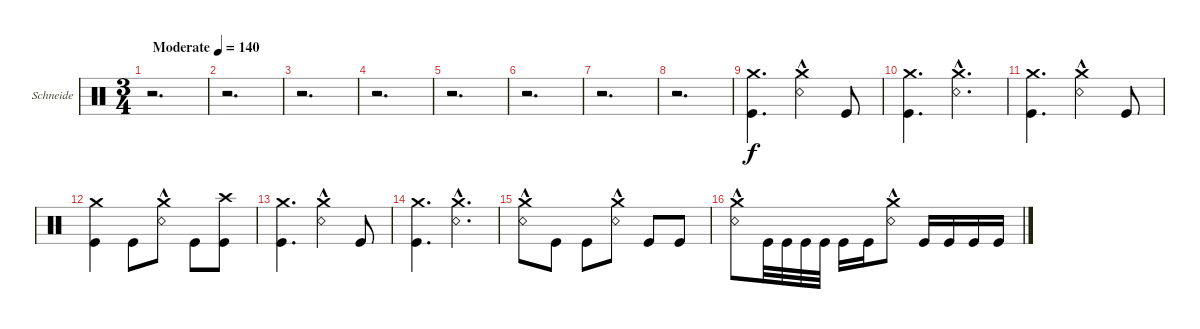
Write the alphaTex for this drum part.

\bracketExtendMode groupsimilarinstruments
\firstSystemTrackNameOrientation horizontal
\otherSystemsTrackNameOrientation horizontal
\track ("Christoph \"Doom\" Schneider" "Schneide") {instrument percussion}
\staff {score}
\articulation defaults
\ts (3 4)
\tempo (140 "Moderate")
\clef neutral
\ks c
r.2{d dy f} |
r.2{d} |
r.2{d} |
r.2{d} |
r.2{d} |
r.2{d} |
r.2{d} |
r.2{d} |
("Crash medium (hit)" "Kick (hit)").4{d} ("Crash medium (hit)" "Snare (rim shot)"{hac}).4 "Kick (hit)".8 |
("Crash medium (hit)" "Kick (hit)").4{d} ("Crash medium (hit)" "Snare (rim shot)"{hac}).4{d} |
("Crash medium (hit)" "Kick (hit)").4{d} ("Crash medium (hit)" "Snare (rim shot)"{hac}).4 "Kick (hit)".8 |
("Crash medium (hit)" "Kick (hit)").4 "Kick (hit)".8 ("Crash medium (hit)" "Snare (rim shot)"{hac}).8 "Kick (hit)".8 ("Crash high (hit)" "Kick (hit)").8 |
("Crash medium (hit)" "Kick (hit)").4{d} ("Crash medium (hit)" "Snare (rim shot)"{hac}).4 "Kick (hit)".8 |
("Crash medium (hit)" "Kick (hit)").4{d} ("Crash medium (hit)" "Snare (rim shot)"{hac}).4{d} |
("Crash medium (hit)" "Snare (rim shot)"{hac}).8 "Kick (hit)".8 "Kick (hit)".8 ("Crash medium (hit)" "Snare (rim shot)"{hac}).8 "Kick (hit)".8 "Kick (hit)".8 |
("Crash medium (hit)" "Snare (rim shot)"{hac}).8 "Kick (hit)".32 "Kick (hit)".32 "Kick (hit)".32 "Kick (hit)".32 "Kick (hit)".16 "Kick (hit)".16 ("Crash medium (hit)" "Snare (rim shot)"{hac}).8 "Kick (hit)".16 "Kick (hit)".16 "Kick (hit)".16 "Kick (hit)".16
